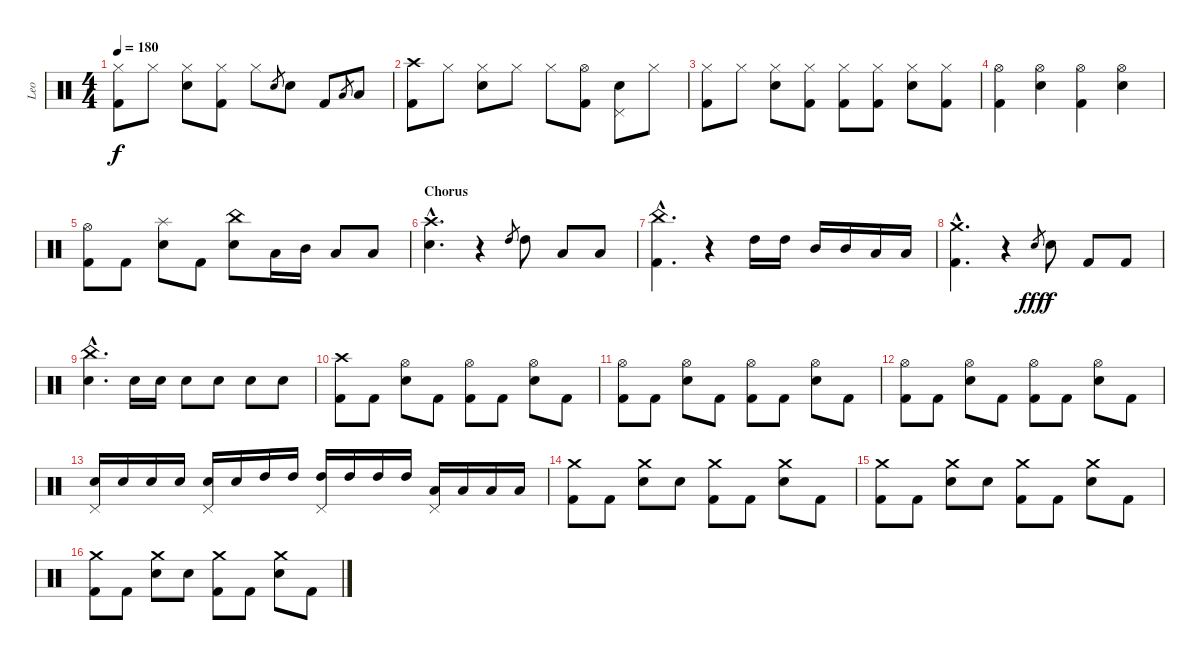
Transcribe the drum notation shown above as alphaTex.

\track ("Leo" "Leo") {instrument percussion}
\staff {score}
\articulation defaults
\ts (4 4)
\tempo 180
\clef neutral
\ks c
("Hi-Hat (closed)" "Kick (hit) 2").8{dy f} "Hi-Hat (closed)".8 ("Hi-Hat (closed)" "Electric Snare (hit)").8 ("Hi-Hat (closed)" "Kick (hit) 2").8 "Hi-Hat (closed)".8 "Electric Snare (hit)".8{gr} "Electric Snare (hit)".8 "Kick (hit) 2".8 "Low Tom (hit)".8{gr} "Low Tom (hit)".8 |
("Crash high (hit)" "Kick (hit) 2").8 "Hi-Hat (closed)".8 ("Hi-Hat (closed)" "Electric Snare (hit)").8 "Hi-Hat (closed)".8 "Hi-Hat (closed)".8 ("Hi-Hat (open)" "Kick (hit) 2").8 ("Pedal Hi-Hat (hit)" "Electric Snare (hit)").8 "Hi-Hat (closed)".8 |
("Hi-Hat (closed)" "Kick (hit) 2").8 "Hi-Hat (closed)".8 ("Hi-Hat (closed)" "Electric Snare (hit)").8 ("Hi-Hat (closed)" "Kick (hit) 2").8 ("Hi-Hat (closed)" "Kick (hit) 2").8 ("Hi-Hat (closed)" "Kick (hit) 2").8 ("Hi-Hat (closed)" "Electric Snare (hit)").8 ("Hi-Hat (closed)" "Kick (hit) 2").8 |
("Hi-Hat (open)" "Kick (hit) 2").4 ("Hi-Hat (open)" "Electric Snare (hit)").4 ("Hi-Hat (open)" "Kick (hit) 2").4 ("Hi-Hat (open)" "Electric Snare (hit)").4 |
("Hi-Hat (open)" "Kick (hit) 2").8 "Kick (hit) 2".8 ("Splash (hit)" "Electric Snare (hit)").8 "Kick (hit) 2".8 ("China (hit)" "Electric Snare (hit)").8 "Low Tom (hit)".16 "Mid Tom (hit)".16 "Low Tom (hit)".8 "Low Tom (hit)".8 |
\section ("" "Chorus")
("Crash high (hit)"{hac} "Electric Snare (hit)"{hac}).4{d} r.4 "High Tom (hit)".8{gr} "High Tom (hit)".8 "Low Tom (hit)".8 "Low Tom (hit)".8 |
("China (hit)"{hac} "Kick (hit) 2"{hac}).4{d} r.4 "High Tom (hit)".16 "High Tom (hit)".16 "Mid Tom (hit)".16 "Mid Tom (hit)".16 "Low Tom (hit)".16 "Low Tom (hit)".16 |
("Crash medium (hit)"{hac} "Kick (hit) 2"{hac}).4{d} r.4 "Electric Snare (hit)".8{gr dy fff} "Electric Snare (hit)".8{dy f} "Kick (hit) 2".8 "Kick (hit) 2".8 |
("China (hit)"{hac} "Electric Snare (hit)"{hac}).4{d} "Electric Snare (hit)".16 "Electric Snare (hit)".16 "Electric Snare (hit)".8 "Electric Snare (hit)".8 "Electric Snare (hit)".8 "Electric Snare (hit)".8 |
("Crash high (hit)" "Kick (hit) 2").8 "Kick (hit) 2".8 ("Hi-Hat (open)" "Electric Snare (hit)").8 "Kick (hit) 2".8 ("Hi-Hat (open)" "Kick (hit) 2").8 "Kick (hit) 2".8 ("Hi-Hat (open)" "Electric Snare (hit)").8 "Kick (hit) 2".8 |
("Hi-Hat (open)" "Kick (hit) 2").8 "Kick (hit) 2".8 ("Hi-Hat (open)" "Electric Snare (hit)").8 "Kick (hit) 2".8 ("Hi-Hat (open)" "Kick (hit) 2").8 "Kick (hit) 2".8 ("Hi-Hat (open)" "Electric Snare (hit)").8 "Kick (hit) 2".8 |
("Hi-Hat (open)" "Kick (hit) 2").8 "Kick (hit) 2".8 ("Hi-Hat (open)" "Electric Snare (hit)").8 "Kick (hit) 2".8 ("Hi-Hat (open)" "Kick (hit) 2").8 "Kick (hit) 2".8 ("Hi-Hat (open)" "Electric Snare (hit)").8 "Kick (hit) 2".8 |
("Electric Snare (hit)" "Pedal Hi-Hat (hit)").16 "Electric Snare (hit)".16 "Electric Snare (hit)".16 "Electric Snare (hit)".16 ("Electric Snare (hit)" "Pedal Hi-Hat (hit)").16 "Electric Snare (hit)".16 "High Tom (hit)".16 "High Tom (hit)".16 ("High Tom (hit)" "Pedal Hi-Hat (hit)").16 "High Tom (hit)".16 "High Tom (hit)".16 "High Tom (hit)".16 ("Low Tom (hit)" "Pedal Hi-Hat (hit)").16 "Low Tom (hit)".16 "Low Tom (hit)".16 "Low Tom (hit)".16 |
("Crash medium (hit)" "Kick (hit) 2").8 "Kick (hit) 2".8 ("Crash medium (hit)" "Electric Snare (hit)").8 "Electric Snare (hit)".8 ("Crash medium (hit)" "Kick (hit) 2").8 "Kick (hit) 2".8 ("Crash medium (hit)" "Electric Snare (hit)").8 "Kick (hit) 2".8 |
("Crash medium (hit)" "Kick (hit) 2").8 "Kick (hit) 2".8 ("Crash medium (hit)" "Electric Snare (hit)").8 "Electric Snare (hit)".8 ("Crash medium (hit)" "Kick (hit) 2").8 "Kick (hit) 2".8 ("Crash medium (hit)" "Electric Snare (hit)").8 "Kick (hit) 2".8 |
("Crash medium (hit)" "Kick (hit) 2").8 "Kick (hit) 2".8 ("Crash medium (hit)" "Electric Snare (hit)").8 "Electric Snare (hit)".8 ("Crash medium (hit)" "Kick (hit) 2").8 "Kick (hit) 2".8 ("Crash medium (hit)" "Electric Snare (hit)").8 "Kick (hit) 2".8
